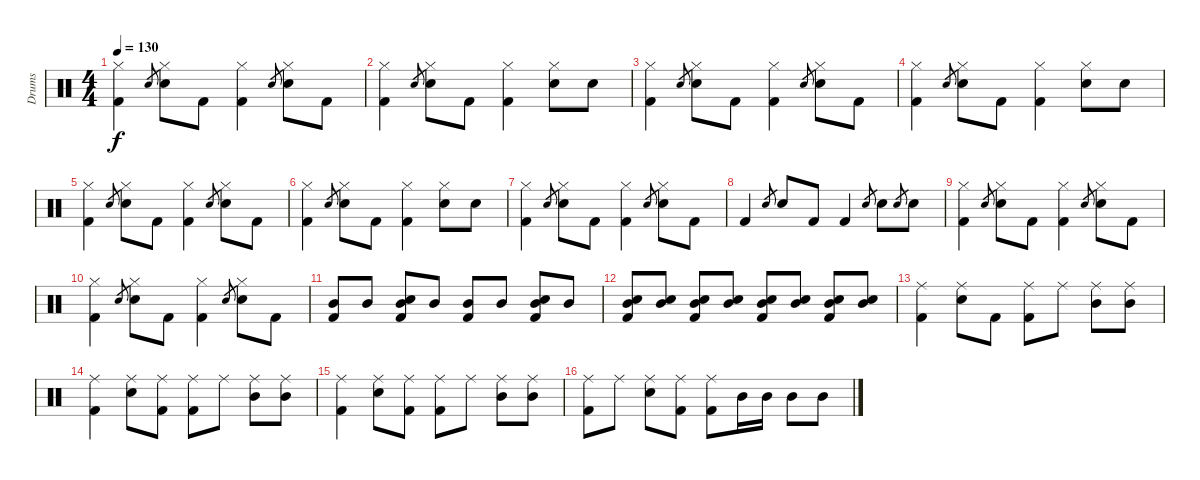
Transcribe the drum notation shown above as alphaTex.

\track ("Drums" "Drums") {instrument percussion}
\staff {score}
\articulation defaults
\ts (4 4)
\tempo 130
\clef neutral
\ks c
("Hi-Hat (closed)" "Kick (hit) 2").4{dy f} "Snare (hit) 2".8{gr} ("Hi-Hat (closed)" "Snare (hit) 2").8 "Kick (hit) 2".8 ("Hi-Hat (closed)" "Kick (hit) 2").4 "Snare (hit) 2".8{gr} ("Hi-Hat (closed)" "Snare (hit) 2").8 "Kick (hit) 2".8 |
("Hi-Hat (closed)" "Kick (hit) 2").4 "Snare (hit) 2".8{gr} ("Hi-Hat (closed)" "Snare (hit) 2").8 "Kick (hit) 2".8 ("Hi-Hat (closed)" "Kick (hit) 2").4 ("Hi-Hat (closed)" "Snare (hit) 2").8 "Snare (hit) 2".8 |
("Hi-Hat (closed)" "Kick (hit) 2").4 "Snare (hit) 2".8{gr} ("Hi-Hat (closed)" "Snare (hit) 2").8 "Kick (hit) 2".8 ("Hi-Hat (closed)" "Kick (hit) 2").4 "Snare (hit) 2".8{gr} ("Hi-Hat (closed)" "Snare (hit) 2").8 "Kick (hit) 2".8 |
("Hi-Hat (closed)" "Kick (hit) 2").4 "Snare (hit) 2".8{gr} ("Hi-Hat (closed)" "Snare (hit) 2").8 "Kick (hit) 2".8 ("Hi-Hat (closed)" "Kick (hit) 2").4 ("Hi-Hat (closed)" "Snare (hit) 2").8 "Snare (hit) 2".8 |
("Hi-Hat (closed)" "Kick (hit) 2").4 "Snare (hit) 2".8{gr} ("Hi-Hat (closed)" "Snare (hit) 2").8 "Kick (hit) 2".8 ("Hi-Hat (closed)" "Kick (hit) 2").4 "Snare (hit) 2".8{gr} ("Hi-Hat (closed)" "Snare (hit) 2").8 "Kick (hit) 2".8 |
("Hi-Hat (closed)" "Kick (hit) 2").4 "Snare (hit) 2".8{gr} ("Hi-Hat (closed)" "Snare (hit) 2").8 "Kick (hit) 2".8 ("Hi-Hat (closed)" "Kick (hit) 2").4 ("Hi-Hat (closed)" "Snare (hit) 2").8 "Snare (hit) 2".8 |
("Hi-Hat (closed)" "Kick (hit) 2").4 "Snare (hit) 2".8{gr} ("Hi-Hat (closed)" "Snare (hit) 2").8 "Kick (hit) 2".8 ("Hi-Hat (closed)" "Kick (hit) 2").4 "Snare (hit) 2".8{gr} ("Hi-Hat (closed)" "Snare (hit) 2").8 "Kick (hit) 2".8 |
"Kick (hit) 2".4 "Snare (hit) 2".8{gr} "Snare (hit) 2".8 "Kick (hit) 2".8 "Kick (hit) 2".4 "Snare (hit) 2".8{gr} "Snare (hit) 2".8 "Snare (hit) 2".8{gr} "Snare (hit) 2".8 |
("Hi-Hat (closed)" "Kick (hit) 2").4 "Snare (hit) 2".8{gr} ("Hi-Hat (closed)" "Snare (hit) 2").8 "Kick (hit) 2".8 ("Hi-Hat (closed)" "Kick (hit) 2").4 "Snare (hit) 2".8{gr} ("Hi-Hat (closed)" "Snare (hit) 2").8 "Kick (hit) 2".8 |
("Hi-Hat (closed)" "Kick (hit) 2").4 "Snare (hit) 2".8{gr} ("Hi-Hat (closed)" "Snare (hit) 2").8 "Kick (hit) 2".8 ("Hi-Hat (closed)" "Kick (hit) 2").4 "Snare (hit) 2".8{gr} ("Hi-Hat (closed)" "Snare (hit) 2").8 "Kick (hit) 2".8 |
("Mid Tom (hit)" "Kick (hit) 2").8 "Mid Tom (hit)".8 ("Mid Tom (hit)" "Snare (hit) 2" "Kick (hit) 2").8 "Mid Tom (hit)".8 ("Mid Tom (hit)" "Kick (hit) 2").8 "Mid Tom (hit)".8 ("Mid Tom (hit)" "Snare (hit) 2" "Kick (hit) 2").8 "Mid Tom (hit)".8 |
("Mid Tom (hit)" "Snare (hit) 2" "Kick (hit) 2").8 ("Mid Tom (hit)" "Snare (hit) 2").8 ("Mid Tom (hit)" "Snare (hit) 2" "Kick (hit) 2").8 ("Mid Tom (hit)" "Snare (hit) 2").8 ("Mid Tom (hit)" "Snare (hit) 2" "Kick (hit) 2").8 ("Mid Tom (hit)" "Snare (hit) 2").8 ("Mid Tom (hit)" "Snare (hit) 2" "Kick (hit) 2").8 ("Mid Tom (hit)" "Snare (hit) 2").8 |
("Ride (middle)" "Kick (hit) 2").4 ("Ride (middle)" "Snare (hit) 2").8 "Kick (hit) 2".8 ("Ride (middle)" "Kick (hit) 2").8 "Ride (middle)".8 ("Ride (middle)" "Mid Tom (hit)").8 ("Ride (middle)" "Mid Tom (hit)").8 |
("Ride (middle)" "Kick (hit) 2").4 ("Ride (middle)" "Snare (hit) 2").8 ("Ride (middle)" "Kick (hit) 2").8 ("Ride (middle)" "Kick (hit) 2").8 "Ride (middle)".8 ("Ride (middle)" "Mid Tom (hit)").8 ("Ride (middle)" "Mid Tom (hit)").8 |
("Ride (middle)" "Kick (hit) 2").4 ("Ride (middle)" "Snare (hit) 2").8 ("Ride (middle)" "Kick (hit) 2").8 ("Ride (middle)" "Kick (hit) 2").8 "Ride (middle)".8 ("Ride (middle)" "Mid Tom (hit)").8 ("Ride (middle)" "Mid Tom (hit)").8 |
("Ride (middle)" "Kick (hit) 2").8 "Ride (middle)".8 ("Ride (middle)" "Snare (hit) 2").8 ("Ride (middle)" "Kick (hit) 2").8 ("Ride (middle)" "Kick (hit) 2").8 "Mid Tom (hit)".16 "Mid Tom (hit)".16 "Mid Tom (hit)".8 "Mid Tom (hit)".8
